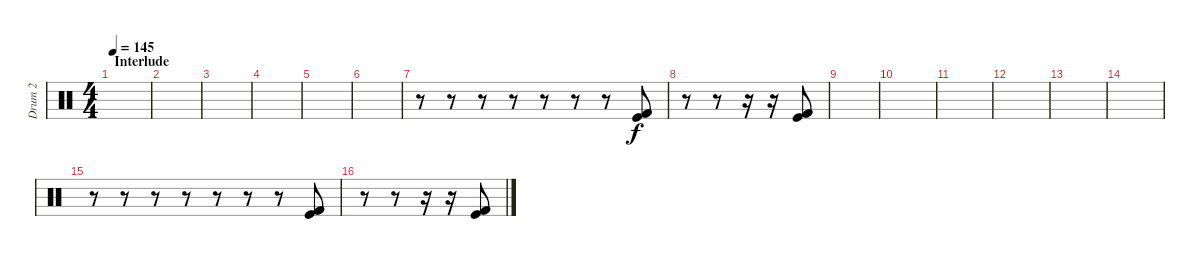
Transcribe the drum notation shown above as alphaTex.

\track ("Drum 2" "Drum 2") {instrument percussion}
\staff {score}
\articulation defaults
\ts (4 4)
\section ("" "Interlude")
\tempo 145
\clef neutral
\ks c
|
|
|
|
|
|
r.8 r.8 r.8 r.8 r.8 r.8 r.8 ("Kick (hit)" "Kick (hit) 2").8 |
r.8 r.8 r.16 r.16 ("Kick (hit)" "Kick (hit) 2").8 |
|
|
|
|
|
|
r.8 r.8 r.8 r.8 r.8 r.8 r.8 ("Kick (hit)" "Kick (hit) 2").8 |
r.8 r.8 r.16 r.16 ("Kick (hit)" "Kick (hit) 2").8
